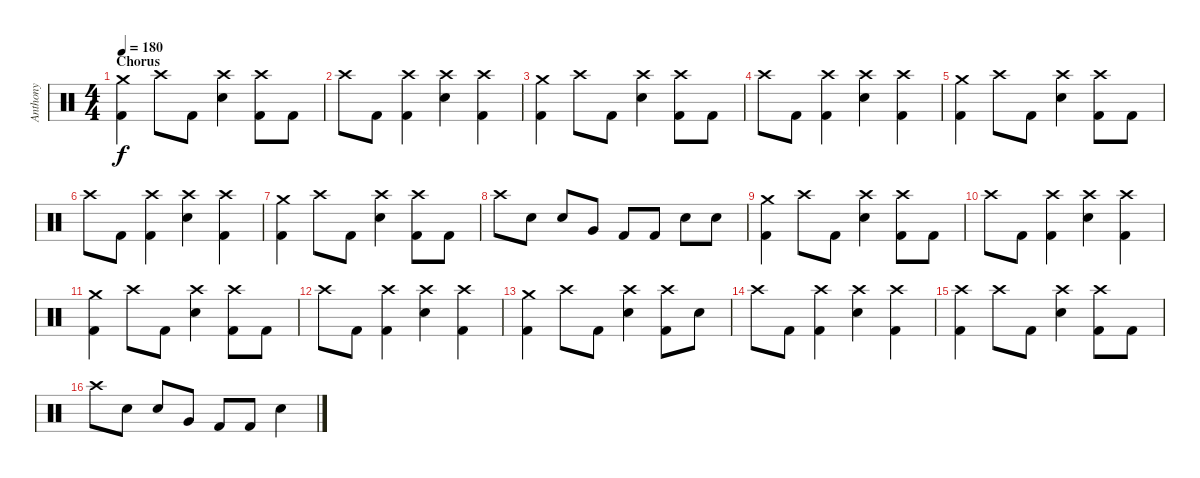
\track ("Anthony" "Anthony") {instrument percussion}
\staff {score}
\articulation defaults
\ts (4 4)
\section ("" "Chorus")
\tempo 180
\clef neutral
\ks c
("Crash medium (hit)" "Kick (hit) 2").4{dy f} "Crash high (hit)".8 "Kick (hit) 2".8 ("Crash high (hit)" "Electric Snare (hit)").4 ("Crash high (hit)" "Kick (hit) 2").8 "Kick (hit) 2".8 |
"Crash high (hit)".8 "Kick (hit) 2".8 ("Crash high (hit)" "Kick (hit) 2").4 ("Crash high (hit)" "Electric Snare (hit)").4 ("Crash high (hit)" "Kick (hit) 2").4 |
("Crash medium (hit)" "Kick (hit) 2").4 "Crash high (hit)".8 "Kick (hit) 2".8 ("Crash high (hit)" "Electric Snare (hit)").4 ("Crash high (hit)" "Kick (hit) 2").8 "Kick (hit) 2".8 |
"Crash high (hit)".8 "Kick (hit) 2".8 ("Crash high (hit)" "Kick (hit) 2").4 ("Crash high (hit)" "Electric Snare (hit)").4 ("Crash high (hit)" "Kick (hit) 2").4 |
("Crash medium (hit)" "Kick (hit) 2").4 "Crash high (hit)".8 "Kick (hit) 2".8 ("Crash high (hit)" "Electric Snare (hit)").4 ("Crash high (hit)" "Kick (hit) 2").8 "Kick (hit) 2".8 |
"Crash high (hit)".8 "Kick (hit) 2".8 ("Crash high (hit)" "Kick (hit) 2").4 ("Crash high (hit)" "Electric Snare (hit)").4 ("Crash high (hit)" "Kick (hit) 2").4 |
("Crash medium (hit)" "Kick (hit) 2").4 "Crash high (hit)".8 "Kick (hit) 2".8 ("Crash high (hit)" "Electric Snare (hit)").4 ("Crash high (hit)" "Kick (hit) 2").8 "Kick (hit) 2".8 |
"Crash high (hit)".8 "Electric Snare (hit)".8 "Electric Snare (hit)".8 "Very Low Tom (hit)".8 "Kick (hit) 2".8 "Kick (hit) 2".8 "Electric Snare (hit)".8 "Electric Snare (hit)".8 |
("Crash medium (hit)" "Kick (hit) 2").4 "Crash high (hit)".8 "Kick (hit) 2".8 ("Crash high (hit)" "Electric Snare (hit)").4 ("Crash high (hit)" "Kick (hit) 2").8 "Kick (hit) 2".8 |
"Crash high (hit)".8 "Kick (hit) 2".8 ("Crash high (hit)" "Kick (hit) 2").4 ("Crash high (hit)" "Electric Snare (hit)").4 ("Crash high (hit)" "Kick (hit) 2").4 |
("Crash medium (hit)" "Kick (hit) 2").4 "Crash high (hit)".8 "Kick (hit) 2".8 ("Crash high (hit)" "Electric Snare (hit)").4 ("Crash high (hit)" "Kick (hit) 2").8 "Kick (hit) 2".8 |
"Crash high (hit)".8 "Kick (hit) 2".8 ("Crash high (hit)" "Kick (hit) 2").4 ("Crash high (hit)" "Electric Snare (hit)").4 ("Crash high (hit)" "Kick (hit) 2").4 |
("Crash medium (hit)" "Kick (hit) 2").4 "Crash high (hit)".8 "Kick (hit) 2".8 ("Crash high (hit)" "Electric Snare (hit)").4 ("Crash high (hit)" "Kick (hit) 2").8 "Electric Snare (hit)".8 |
"Crash high (hit)".8 "Kick (hit) 2".8 ("Crash high (hit)" "Kick (hit) 2").4 ("Crash high (hit)" "Electric Snare (hit)").4 ("Crash high (hit)" "Kick (hit) 2").4 |
("Crash high (hit)" "Kick (hit) 2").4 "Crash high (hit)".8 "Kick (hit) 2".8 ("Crash high (hit)" "Electric Snare (hit)").4 ("Crash high (hit)" "Kick (hit) 2").8 "Kick (hit) 2".8 |
"Crash high (hit)".8 "Electric Snare (hit)".8 "Electric Snare (hit)".8 "Very Low Tom (hit)".8 "Kick (hit) 2".8 "Kick (hit) 2".8 "Electric Snare (hit)".4
